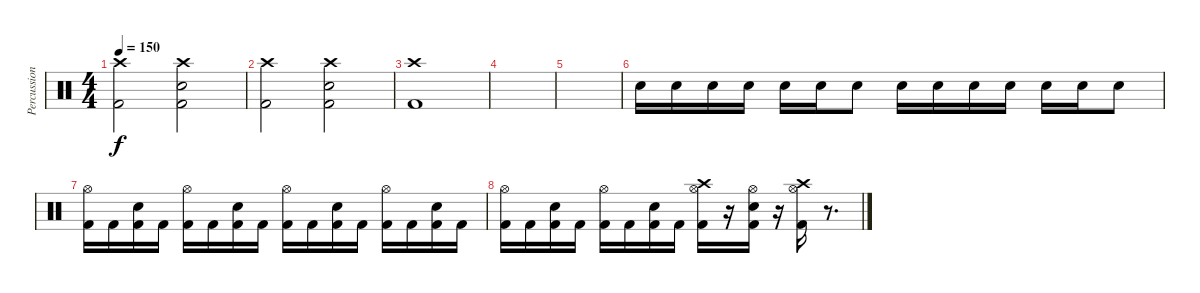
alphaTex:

\track ("Percussions" "Percussion") {instrument percussion}
\staff {score}
\articulation defaults
\ts (4 4)
\tempo 150
\clef neutral
\ks c
("Crash high (hit)" "Kick (hit) 2").2{dy f} ("Crash high (hit)" "Snare (hit) 2" "Kick (hit) 2").2 |
("Crash high (hit)" "Kick (hit) 2").2 ("Crash high (hit)" "Snare (hit) 2" "Kick (hit) 2").2 |
("Crash high (hit)" "Kick (hit) 2").1 |
|
|
"Snare (hit) 2".16 "Snare (hit) 2".16 "Snare (hit) 2".16 "Snare (hit) 2".16 "Snare (hit) 2".16 "Snare (hit) 2".16 "Snare (hit) 2".8 "Snare (hit) 2".16 "Snare (hit) 2".16 "Snare (hit) 2".16 "Snare (hit) 2".16 "Snare (hit) 2".16 "Snare (hit) 2".16 "Snare (hit) 2".8 |
("Hi-Hat (open)" "Kick (hit) 2").16 "Kick (hit) 2".16 ("Snare (hit) 2" "Kick (hit) 2").16 "Kick (hit) 2".16 ("Hi-Hat (open)" "Kick (hit) 2").16 "Kick (hit) 2".16 ("Snare (hit) 2" "Kick (hit) 2").16 "Kick (hit) 2".16 ("Hi-Hat (open)" "Kick (hit) 2").16 "Kick (hit) 2".16 ("Snare (hit) 2" "Kick (hit) 2").16 "Kick (hit) 2".16 ("Hi-Hat (open)" "Kick (hit) 2").16 "Kick (hit) 2".16 ("Snare (hit) 2" "Kick (hit) 2").16 "Kick (hit) 2".16 |
("Hi-Hat (open)" "Kick (hit) 2").16 "Kick (hit) 2".16 ("Snare (hit) 2" "Kick (hit) 2").16 "Kick (hit) 2".16 ("Hi-Hat (open)" "Kick (hit) 2").16 "Kick (hit) 2".16 ("Snare (hit) 2" "Kick (hit) 2").16 "Kick (hit) 2".16 ("Crash high (hit)" "Hi-Hat (open)" "Kick (hit) 2").16 r.16 ("Hi-Hat (open)" "Snare (hit) 2" "Kick (hit) 2").16 r.16 ("Crash high (hit)" "Hi-Hat (open)" "Kick (hit) 2").16 r.8{d}
